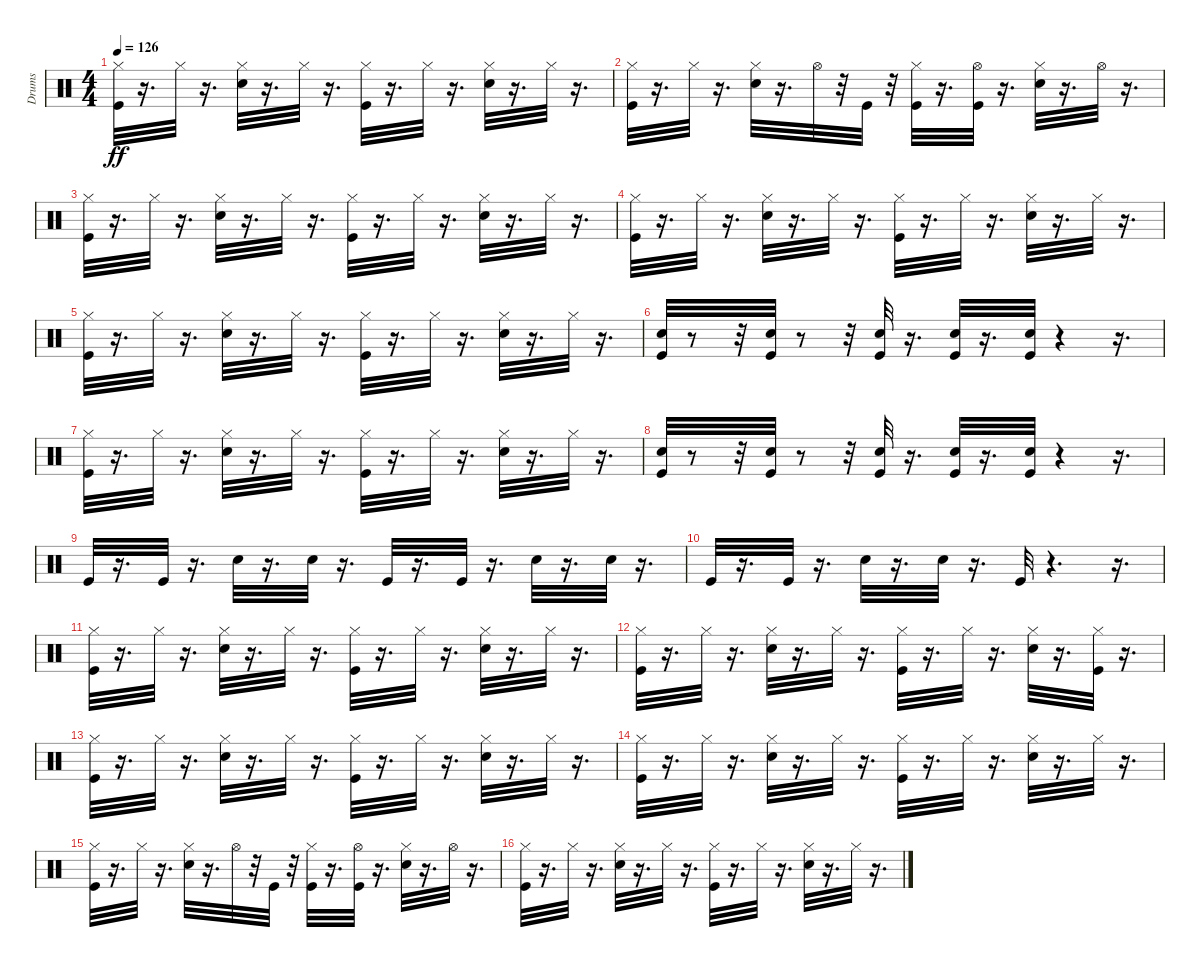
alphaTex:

\track ("Drums" "Drums") {instrument percussion}
\staff {score}
\articulation defaults
\ts (4 4)
\tempo 126
\clef neutral
\ks c
("Kick (hit)" "Hi-Hat (closed)").32{dy ff} r.16{d} "Hi-Hat (closed)".32 r.16{d} ("Snare (hit) 2" "Hi-Hat (closed)").32 r.16{d} "Hi-Hat (closed)".32 r.16{d} ("Kick (hit)" "Hi-Hat (closed)").32 r.16{d} "Hi-Hat (closed)".32 r.16{d} ("Snare (hit) 2" "Hi-Hat (closed)").32 r.16{d} "Hi-Hat (closed)".32 r.16{d} |
("Kick (hit)" "Hi-Hat (closed)").32 r.16{d} "Hi-Hat (closed)".32 r.16{d} ("Snare (hit) 2" "Hi-Hat (closed)").32 r.16{d} "Hi-Hat (open)".32 r.32 "Kick (hit)".32 r.32 ("Kick (hit)" "Hi-Hat (closed)").32 r.16{d} ("Kick (hit)" "Hi-Hat (open)").32 r.16{d} ("Snare (hit) 2" "Hi-Hat (closed)").32 r.16{d} "Hi-Hat (open)".32 r.16{d} |
("Kick (hit)" "Hi-Hat (closed)").32 r.16{d} "Hi-Hat (closed)".32 r.16{d} ("Snare (hit) 2" "Hi-Hat (closed)").32 r.16{d} "Hi-Hat (closed)".32 r.16{d} ("Kick (hit)" "Hi-Hat (closed)").32 r.16{d} "Hi-Hat (closed)".32 r.16{d} ("Snare (hit) 2" "Hi-Hat (closed)").32 r.16{d} "Hi-Hat (closed)".32 r.16{d} |
("Kick (hit)" "Hi-Hat (closed)").32 r.16{d} "Hi-Hat (closed)".32 r.16{d} ("Snare (hit) 2" "Hi-Hat (closed)").32 r.16{d} "Hi-Hat (closed)".32 r.16{d} ("Kick (hit)" "Hi-Hat (closed)").32 r.16{d} "Hi-Hat (closed)".32 r.16{d} ("Snare (hit) 2" "Hi-Hat (closed)").32 r.16{d} "Hi-Hat (closed)".32 r.16{d} |
("Kick (hit)" "Hi-Hat (closed)").32 r.16{d} "Hi-Hat (closed)".32 r.16{d} ("Snare (hit) 2" "Hi-Hat (closed)").32 r.16{d} "Hi-Hat (closed)".32 r.16{d} ("Kick (hit)" "Hi-Hat (closed)").32 r.16{d} "Hi-Hat (closed)".32 r.16{d} ("Snare (hit) 2" "Hi-Hat (closed)").32 r.16{d} "Hi-Hat (closed)".32 r.16{d} |
("Kick (hit)" "Snare (hit) 2").32 r.8 r.32 ("Kick (hit)" "Snare (hit) 2").32 r.8 r.32 ("Kick (hit)" "Snare (hit) 2").32 r.16{d} ("Kick (hit)" "Snare (hit) 2").32 r.16{d} ("Kick (hit)" "Snare (hit) 2").32 r.4 r.16{d} |
("Kick (hit)" "Hi-Hat (closed)").32 r.16{d} "Hi-Hat (closed)".32 r.16{d} ("Snare (hit) 2" "Hi-Hat (closed)").32 r.16{d} "Hi-Hat (closed)".32 r.16{d} ("Kick (hit)" "Hi-Hat (closed)").32 r.16{d} "Hi-Hat (closed)".32 r.16{d} ("Snare (hit) 2" "Hi-Hat (closed)").32 r.16{d} "Hi-Hat (closed)".32 r.16{d} |
("Kick (hit)" "Snare (hit) 2").32 r.8 r.32 ("Kick (hit)" "Snare (hit) 2").32 r.8 r.32 ("Kick (hit)" "Snare (hit) 2").32 r.16{d} ("Kick (hit)" "Snare (hit) 2").32 r.16{d} ("Kick (hit)" "Snare (hit) 2").32 r.4 r.16{d} |
"Kick (hit)".32 r.16{d} "Kick (hit)".32 r.16{d} "Snare (hit) 2".32 r.16{d} "Snare (hit) 2".32 r.16{d} "Kick (hit)".32 r.16{d} "Kick (hit)".32 r.16{d} "Snare (hit) 2".32 r.16{d} "Snare (hit) 2".32 r.16{d} |
"Kick (hit)".32 r.16{d} "Kick (hit)".32 r.16{d} "Snare (hit) 2".32 r.16{d} "Snare (hit) 2".32 r.16{d} "Kick (hit)".32 r.4{d} r.16{d} |
("Kick (hit)" "Hi-Hat (closed)").32 r.16{d} "Hi-Hat (closed)".32 r.16{d} ("Snare (hit) 2" "Hi-Hat (closed)").32 r.16{d} "Hi-Hat (closed)".32 r.16{d} ("Kick (hit)" "Hi-Hat (closed)").32 r.16{d} "Hi-Hat (closed)".32 r.16{d} ("Snare (hit) 2" "Hi-Hat (closed)").32 r.16{d} "Hi-Hat (closed)".32 r.16{d} |
("Kick (hit)" "Hi-Hat (closed)").32 r.16{d} "Hi-Hat (closed)".32 r.16{d} ("Snare (hit) 2" "Hi-Hat (closed)").32 r.16{d} "Hi-Hat (closed)".32 r.16{d} ("Kick (hit)" "Hi-Hat (closed)").32 r.16{d} "Hi-Hat (closed)".32 r.16{d} ("Snare (hit) 2" "Hi-Hat (closed)").32 r.16{d} ("Kick (hit)" "Hi-Hat (closed)").32 r.16{d} |
("Kick (hit)" "Hi-Hat (closed)").32 r.16{d} "Hi-Hat (closed)".32 r.16{d} ("Snare (hit) 2" "Hi-Hat (closed)").32 r.16{d} "Hi-Hat (closed)".32 r.16{d} ("Kick (hit)" "Hi-Hat (closed)").32 r.16{d} "Hi-Hat (closed)".32 r.16{d} ("Snare (hit) 2" "Hi-Hat (closed)").32 r.16{d} "Hi-Hat (closed)".32 r.16{d} |
("Kick (hit)" "Hi-Hat (closed)").32 r.16{d} "Hi-Hat (closed)".32 r.16{d} ("Snare (hit) 2" "Hi-Hat (closed)").32 r.16{d} "Hi-Hat (closed)".32 r.16{d} ("Kick (hit)" "Hi-Hat (closed)").32 r.16{d} "Hi-Hat (closed)".32 r.16{d} ("Snare (hit) 2" "Hi-Hat (closed)").32 r.16{d} "Hi-Hat (closed)".32 r.16{d} |
("Kick (hit)" "Hi-Hat (closed)").32 r.16{d} "Hi-Hat (closed)".32 r.16{d} ("Snare (hit) 2" "Hi-Hat (closed)").32 r.16{d} "Hi-Hat (open)".32 r.32 "Kick (hit)".32 r.32 ("Kick (hit)" "Hi-Hat (closed)").32 r.16{d} ("Kick (hit)" "Hi-Hat (open)").32 r.16{d} ("Snare (hit) 2" "Hi-Hat (closed)").32 r.16{d} "Hi-Hat (open)".32 r.16{d} |
("Kick (hit)" "Hi-Hat (closed)").32 r.16{d} "Hi-Hat (closed)".32 r.16{d} ("Snare (hit) 2" "Hi-Hat (closed)").32 r.16{d} "Hi-Hat (closed)".32 r.16{d} ("Kick (hit)" "Hi-Hat (closed)").32 r.16{d} "Hi-Hat (closed)".32 r.16{d} ("Snare (hit) 2" "Hi-Hat (closed)").32 r.16{d} "Hi-Hat (closed)".32 r.16{d}
